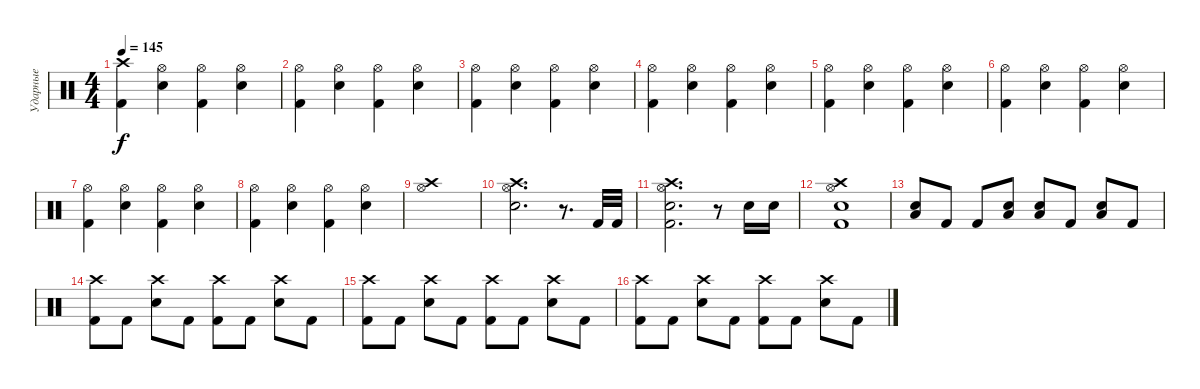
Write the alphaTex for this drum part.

\track ("Ударные" "Ударные") {instrument percussion}
\staff {score}
\articulation defaults
\ts (4 4)
\tempo 145
\clef neutral
\ks c
("Crash high (hit)" "Kick (hit) 2").4{dy f} ("Hi-Hat (open)" "Electric Snare (hit)").4 ("Hi-Hat (open)" "Kick (hit) 2").4 ("Hi-Hat (open)" "Electric Snare (hit)").4 |
("Hi-Hat (open)" "Kick (hit) 2").4 ("Hi-Hat (open)" "Electric Snare (hit)").4 ("Hi-Hat (open)" "Kick (hit) 2").4 ("Hi-Hat (open)" "Electric Snare (hit)").4 |
("Hi-Hat (open)" "Kick (hit) 2").4 ("Hi-Hat (open)" "Electric Snare (hit)").4 ("Hi-Hat (open)" "Kick (hit) 2").4 ("Hi-Hat (open)" "Electric Snare (hit)").4 |
("Hi-Hat (open)" "Kick (hit) 2").4 ("Hi-Hat (open)" "Electric Snare (hit)").4 ("Hi-Hat (open)" "Kick (hit) 2").4 ("Hi-Hat (open)" "Electric Snare (hit)").4 |
("Hi-Hat (open)" "Kick (hit) 2").4 ("Hi-Hat (open)" "Electric Snare (hit)").4 ("Hi-Hat (open)" "Kick (hit) 2").4 ("Hi-Hat (open)" "Electric Snare (hit)").4 |
("Hi-Hat (open)" "Kick (hit) 2").4 ("Hi-Hat (open)" "Electric Snare (hit)").4 ("Hi-Hat (open)" "Kick (hit) 2").4 ("Hi-Hat (open)" "Electric Snare (hit)").4 |
("Hi-Hat (open)" "Kick (hit) 2").4 ("Hi-Hat (open)" "Electric Snare (hit)").4 ("Hi-Hat (open)" "Kick (hit) 2").4 ("Hi-Hat (open)" "Electric Snare (hit)").4 |
("Hi-Hat (open)" "Kick (hit) 2").4 ("Hi-Hat (open)" "Electric Snare (hit)").4 ("Hi-Hat (open)" "Kick (hit) 2").4 ("Hi-Hat (open)" "Electric Snare (hit)").4 |
("Hi-Hat (open)" "Crash high (hit)").1 |
("Hi-Hat (open)" "Crash high (hit)" "Electric Snare (hit)").2{d} r.8{d} "Kick (hit) 2".32 "Kick (hit) 2".32 |
("Crash high (hit)" "Hi-Hat (open)" "Electric Snare (hit)" "Kick (hit) 2").2{d} r.8 "Electric Snare (hit)".16 "Electric Snare (hit)".16 |
("Crash high (hit)" "Hi-Hat (open)" "Electric Snare (hit)" "Kick (hit) 2").1 |
("Low Tom (hit)" "Electric Snare (hit)").8 "Kick (hit) 2".8 "Kick (hit) 2".8 ("Low Tom (hit)" "Electric Snare (hit)").8 ("Low Tom (hit)" "Electric Snare (hit)").8 "Kick (hit) 2".8 ("Low Tom (hit)" "Electric Snare (hit)").8 "Kick (hit) 2".8 |
("Crash high (hit)" "Kick (hit) 2").8 "Kick (hit) 2".8 ("Crash high (hit)" "Electric Snare (hit)").8 "Kick (hit) 2".8 ("Crash high (hit)" "Kick (hit) 2").8 "Kick (hit) 2".8 ("Crash high (hit)" "Electric Snare (hit)").8 "Kick (hit) 2".8 |
("Crash high (hit)" "Kick (hit) 2").8 "Kick (hit) 2".8 ("Crash high (hit)" "Electric Snare (hit)").8 "Kick (hit) 2".8 ("Crash high (hit)" "Kick (hit) 2").8 "Kick (hit) 2".8 ("Crash high (hit)" "Electric Snare (hit)").8 "Kick (hit) 2".8 |
("Crash high (hit)" "Kick (hit) 2").8 "Kick (hit) 2".8 ("Crash high (hit)" "Electric Snare (hit)").8 "Kick (hit) 2".8 ("Crash high (hit)" "Kick (hit) 2").8 "Kick (hit) 2".8 ("Crash high (hit)" "Electric Snare (hit)").8 "Kick (hit) 2".8
